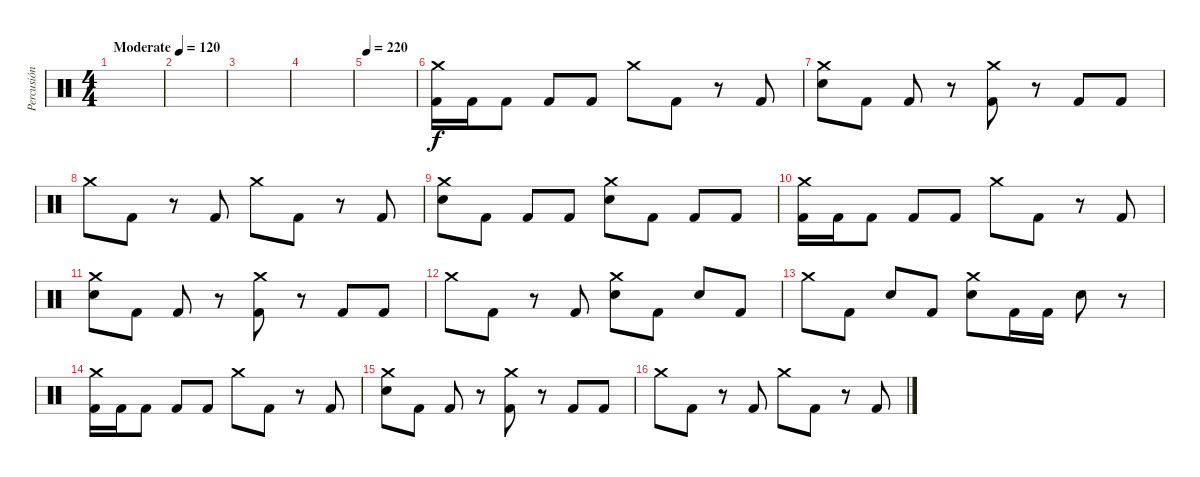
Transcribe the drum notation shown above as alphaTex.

\track ("Percusión" "Percusión") {instrument percussion}
\staff {score}
\articulation defaults
\ts (4 4)
\tempo (120 "Moderate")
\clef neutral
\ks c
|
|
|
|
\tempo 220
|
("Crash medium (hit)" "Kick (hit) 2").16 "Kick (hit) 2".16 "Kick (hit) 2".8 "Kick (hit) 2".8 "Kick (hit) 2".8 "Crash medium (hit)".8 "Kick (hit) 2".8 r.8 "Kick (hit) 2".8 |
("Crash medium (hit)" "Electric Snare (hit)").8 "Kick (hit) 2".8 "Kick (hit) 2".8 r.8 ("Crash medium (hit)" "Kick (hit) 2").8 r.8 "Kick (hit) 2".8 "Kick (hit) 2".8 |
"Crash medium (hit)".8 "Kick (hit) 2".8 r.8 "Kick (hit) 2".8 "Crash medium (hit)".8 "Kick (hit) 2".8 r.8 "Kick (hit) 2".8 |
("Crash medium (hit)" "Electric Snare (hit)").8 "Kick (hit) 2".8 "Kick (hit) 2".8 "Kick (hit) 2".8 ("Crash medium (hit)" "Electric Snare (hit)").8 "Kick (hit) 2".8 "Kick (hit) 2".8 "Kick (hit) 2".8 |
("Crash medium (hit)" "Kick (hit) 2").16 "Kick (hit) 2".16 "Kick (hit) 2".8 "Kick (hit) 2".8 "Kick (hit) 2".8 "Crash medium (hit)".8 "Kick (hit) 2".8 r.8 "Kick (hit) 2".8 |
("Crash medium (hit)" "Electric Snare (hit)").8 "Kick (hit) 2".8 "Kick (hit) 2".8 r.8 ("Crash medium (hit)" "Kick (hit) 2").8 r.8 "Kick (hit) 2".8 "Kick (hit) 2".8 |
"Crash medium (hit)".8 "Kick (hit) 2".8 r.8 "Kick (hit) 2".8 ("Crash medium (hit)" "Electric Snare (hit)").8 "Kick (hit) 2".8 "Electric Snare (hit)".8 "Kick (hit) 2".8 |
"Crash medium (hit)".8 "Kick (hit) 2".8 "Electric Snare (hit)".8 "Kick (hit) 2".8 ("Crash medium (hit)" "Electric Snare (hit)").8 "Kick (hit) 2".16 "Kick (hit) 2".16 "Electric Snare (hit)".8 r.8 |
("Crash medium (hit)" "Kick (hit) 2").16 "Kick (hit) 2".16 "Kick (hit) 2".8 "Kick (hit) 2".8 "Kick (hit) 2".8 "Crash medium (hit)".8 "Kick (hit) 2".8 r.8 "Kick (hit) 2".8 |
("Crash medium (hit)" "Electric Snare (hit)").8 "Kick (hit) 2".8 "Kick (hit) 2".8 r.8 ("Crash medium (hit)" "Kick (hit) 2").8 r.8 "Kick (hit) 2".8 "Kick (hit) 2".8 |
"Crash medium (hit)".8 "Kick (hit) 2".8 r.8 "Kick (hit) 2".8 "Crash medium (hit)".8 "Kick (hit) 2".8 r.8 "Kick (hit) 2".8
